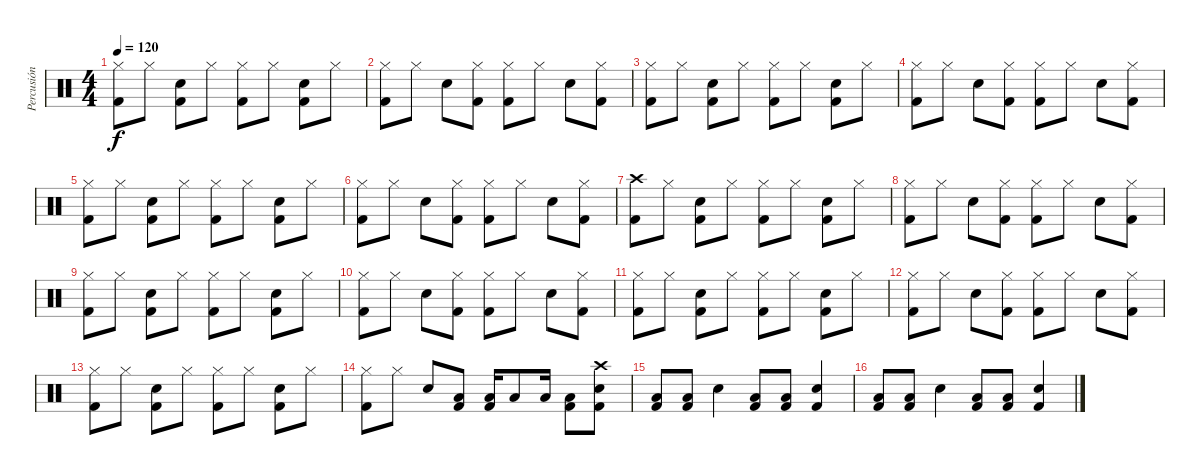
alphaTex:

\track ("Percusión" "Percusión") {instrument percussion}
\staff {score}
\articulation defaults
\ts (4 4)
\tempo 120
\clef neutral
\ks c
("Hi-Hat (closed)" "Kick (hit) 2").8{dy f} "Hi-Hat (closed)".8 ("Electric Snare (hit)" "Kick (hit) 2").8 "Hi-Hat (closed)".8 ("Hi-Hat (closed)" "Kick (hit) 2").8 "Hi-Hat (closed)".8 ("Electric Snare (hit)" "Kick (hit) 2").8 "Hi-Hat (closed)".8 |
("Hi-Hat (closed)" "Kick (hit) 2").8 "Hi-Hat (closed)".8 "Electric Snare (hit)".8 ("Hi-Hat (closed)" "Kick (hit) 2").8 ("Hi-Hat (closed)" "Kick (hit) 2").8 "Hi-Hat (closed)".8 "Electric Snare (hit)".8 ("Hi-Hat (closed)" "Kick (hit) 2").8 |
("Hi-Hat (closed)" "Kick (hit) 2").8 "Hi-Hat (closed)".8 ("Electric Snare (hit)" "Kick (hit) 2").8 "Hi-Hat (closed)".8 ("Hi-Hat (closed)" "Kick (hit) 2").8 "Hi-Hat (closed)".8 ("Electric Snare (hit)" "Kick (hit) 2").8 "Hi-Hat (closed)".8 |
("Hi-Hat (closed)" "Kick (hit) 2").8 "Hi-Hat (closed)".8 "Electric Snare (hit)".8 ("Hi-Hat (closed)" "Kick (hit) 2").8 ("Hi-Hat (closed)" "Kick (hit) 2").8 "Hi-Hat (closed)".8 "Electric Snare (hit)".8 ("Hi-Hat (closed)" "Kick (hit) 2").8 |
("Hi-Hat (closed)" "Kick (hit) 2").8 "Hi-Hat (closed)".8 ("Electric Snare (hit)" "Kick (hit) 2").8 "Hi-Hat (closed)".8 ("Hi-Hat (closed)" "Kick (hit) 2").8 "Hi-Hat (closed)".8 ("Electric Snare (hit)" "Kick (hit) 2").8 "Hi-Hat (closed)".8 |
("Hi-Hat (closed)" "Kick (hit) 2").8 "Hi-Hat (closed)".8 "Electric Snare (hit)".8 ("Hi-Hat (closed)" "Kick (hit) 2").8 ("Hi-Hat (closed)" "Kick (hit) 2").8 "Hi-Hat (closed)".8 "Electric Snare (hit)".8 ("Hi-Hat (closed)" "Kick (hit) 2").8 |
("Crash high (hit)" "Kick (hit) 2").8 "Hi-Hat (closed)".8 ("Electric Snare (hit)" "Kick (hit) 2").8 "Hi-Hat (closed)".8 ("Hi-Hat (closed)" "Kick (hit) 2").8 "Hi-Hat (closed)".8 ("Electric Snare (hit)" "Kick (hit) 2").8 "Hi-Hat (closed)".8 |
("Hi-Hat (closed)" "Kick (hit) 2").8 "Hi-Hat (closed)".8 "Electric Snare (hit)".8 ("Hi-Hat (closed)" "Kick (hit) 2").8 ("Hi-Hat (closed)" "Kick (hit) 2").8 "Hi-Hat (closed)".8 "Electric Snare (hit)".8 ("Hi-Hat (closed)" "Kick (hit) 2").8 |
("Hi-Hat (closed)" "Kick (hit) 2").8 "Hi-Hat (closed)".8 ("Electric Snare (hit)" "Kick (hit) 2").8 "Hi-Hat (closed)".8 ("Hi-Hat (closed)" "Kick (hit) 2").8 "Hi-Hat (closed)".8 ("Electric Snare (hit)" "Kick (hit) 2").8 "Hi-Hat (closed)".8 |
("Hi-Hat (closed)" "Kick (hit) 2").8 "Hi-Hat (closed)".8 "Electric Snare (hit)".8 ("Hi-Hat (closed)" "Kick (hit) 2").8 ("Hi-Hat (closed)" "Kick (hit) 2").8 "Hi-Hat (closed)".8 "Electric Snare (hit)".8 ("Hi-Hat (closed)" "Kick (hit) 2").8 |
("Hi-Hat (closed)" "Kick (hit) 2").8 "Hi-Hat (closed)".8 ("Electric Snare (hit)" "Kick (hit) 2").8 "Hi-Hat (closed)".8 ("Hi-Hat (closed)" "Kick (hit) 2").8 "Hi-Hat (closed)".8 ("Electric Snare (hit)" "Kick (hit) 2").8 "Hi-Hat (closed)".8 |
("Hi-Hat (closed)" "Kick (hit) 2").8 "Hi-Hat (closed)".8 "Electric Snare (hit)".8 ("Hi-Hat (closed)" "Kick (hit) 2").8 ("Hi-Hat (closed)" "Kick (hit) 2").8 "Hi-Hat (closed)".8 "Electric Snare (hit)".8 ("Hi-Hat (closed)" "Kick (hit) 2").8 |
("Hi-Hat (closed)" "Kick (hit) 2").8 "Hi-Hat (closed)".8 ("Electric Snare (hit)" "Kick (hit) 2").8 "Hi-Hat (closed)".8 ("Hi-Hat (closed)" "Kick (hit) 2").8 "Hi-Hat (closed)".8 ("Electric Snare (hit)" "Kick (hit) 2").8 "Hi-Hat (closed)".8 |
("Hi-Hat (closed)" "Kick (hit) 2").8 "Hi-Hat (closed)".8 "Electric Snare (hit)".8 ("Low Floor Tom (hit)" "Kick (hit) 2").8 ("Low Floor Tom (hit)" "Kick (hit) 2").16 "Low Floor Tom (hit)".8 "Low Floor Tom (hit)".16 ("Low Floor Tom (hit)" "Kick (hit) 2").8 ("Crash high (hit)" "Electric Snare (hit)" "Kick (hit) 2").8 |
("Low Floor Tom (hit)" "Kick (hit) 2").8 ("Low Floor Tom (hit)" "Kick (hit) 2").8 "Electric Snare (hit)".4 ("Low Floor Tom (hit)" "Kick (hit) 2").8 ("Low Floor Tom (hit)" "Kick (hit) 2").8 ("Electric Snare (hit)" "Kick (hit) 2").4 |
("Low Floor Tom (hit)" "Kick (hit) 2").8 ("Low Floor Tom (hit)" "Kick (hit) 2").8 "Electric Snare (hit)".4 ("Low Floor Tom (hit)" "Kick (hit) 2").8 ("Low Floor Tom (hit)" "Kick (hit) 2").8 ("Electric Snare (hit)" "Kick (hit) 2").4
